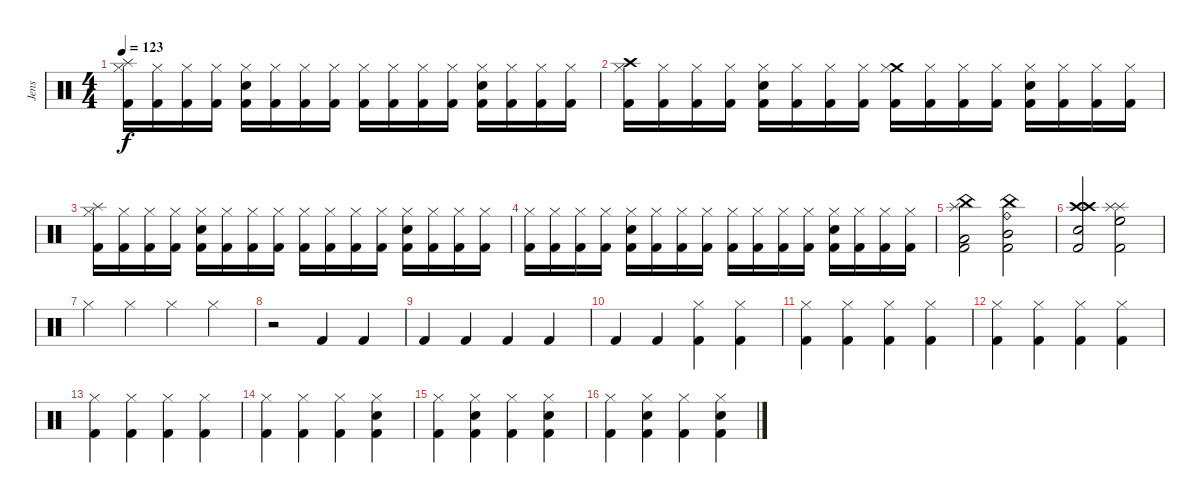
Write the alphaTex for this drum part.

\track ("Jens" "Jens") {instrument percussion}
\staff {score}
\articulation defaults
\ts (4 4)
\tempo 123
\clef neutral
\ks c
("Splash (hit)" "Hi-Hat (closed)" "Kick (hit) 2").16{dy f} ("Hi-Hat (closed)" "Kick (hit) 2").16 ("Hi-Hat (closed)" "Kick (hit) 2").16 ("Hi-Hat (closed)" "Kick (hit) 2").16 ("Hi-Hat (closed)" "Snare (hit) 2" "Kick (hit) 2").16 ("Hi-Hat (closed)" "Kick (hit) 2").16 ("Hi-Hat (closed)" "Kick (hit) 2").16 ("Hi-Hat (closed)" "Kick (hit) 2").16 ("Hi-Hat (closed)" "Kick (hit) 2").16 ("Hi-Hat (closed)" "Kick (hit) 2").16 ("Hi-Hat (closed)" "Kick (hit) 2").16 ("Hi-Hat (closed)" "Kick (hit) 2").16 ("Hi-Hat (closed)" "Snare (hit) 2" "Kick (hit) 2").16 ("Hi-Hat (closed)" "Kick (hit) 2").16 ("Hi-Hat (closed)" "Kick (hit) 2").16 ("Hi-Hat (closed)" "Kick (hit) 2").16 |
("Crash high (hit)" "Hi-Hat (closed)" "Kick (hit) 2").16 ("Hi-Hat (closed)" "Kick (hit) 2").16 ("Hi-Hat (closed)" "Kick (hit) 2").16 ("Hi-Hat (closed)" "Kick (hit) 2").16 ("Hi-Hat (closed)" "Snare (hit) 2" "Kick (hit) 2").16 ("Hi-Hat (closed)" "Kick (hit) 2").16 ("Hi-Hat (closed)" "Kick (hit) 2").16 ("Hi-Hat (closed)" "Kick (hit) 2").16 ("Crash medium (hit)" "Hi-Hat (closed)" "Kick (hit) 2").16 ("Hi-Hat (closed)" "Kick (hit) 2").16 ("Hi-Hat (closed)" "Kick (hit) 2").16 ("Hi-Hat (closed)" "Kick (hit) 2").16 ("Hi-Hat (closed)" "Snare (hit) 2" "Kick (hit) 2").16 ("Hi-Hat (closed)" "Kick (hit) 2").16 ("Hi-Hat (closed)" "Kick (hit) 2").16 ("Hi-Hat (closed)" "Kick (hit) 2").16 |
("Splash (hit)" "Hi-Hat (closed)" "Kick (hit) 2").16 ("Hi-Hat (closed)" "Kick (hit) 2").16 ("Hi-Hat (closed)" "Kick (hit) 2").16 ("Hi-Hat (closed)" "Kick (hit) 2").16 ("Hi-Hat (closed)" "Snare (hit) 2" "Kick (hit) 2").16 ("Hi-Hat (closed)" "Kick (hit) 2").16 ("Hi-Hat (closed)" "Kick (hit) 2").16 ("Hi-Hat (closed)" "Kick (hit) 2").16 ("Hi-Hat (closed)" "Kick (hit) 2").16 ("Hi-Hat (closed)" "Kick (hit) 2").16 ("Hi-Hat (closed)" "Kick (hit) 2").16 ("Hi-Hat (closed)" "Kick (hit) 2").16 ("Hi-Hat (closed)" "Snare (hit) 2" "Kick (hit) 2").16 ("Hi-Hat (closed)" "Kick (hit) 2").16 ("Hi-Hat (closed)" "Kick (hit) 2").16 ("Hi-Hat (closed)" "Kick (hit) 2").16 |
("Hi-Hat (closed)" "Kick (hit) 2").16 ("Hi-Hat (closed)" "Kick (hit) 2").16 ("Hi-Hat (closed)" "Kick (hit) 2").16 ("Hi-Hat (closed)" "Kick (hit) 2").16 ("Hi-Hat (closed)" "Snare (hit) 2" "Kick (hit) 2").16 ("Hi-Hat (closed)" "Kick (hit) 2").16 ("Hi-Hat (closed)" "Kick (hit) 2").16 ("Hi-Hat (closed)" "Kick (hit) 2").16 ("Hi-Hat (closed)" "Kick (hit) 2").16 ("Hi-Hat (closed)" "Kick (hit) 2").16 ("Hi-Hat (closed)" "Kick (hit) 2").16 ("Hi-Hat (closed)" "Kick (hit) 2").16 ("Hi-Hat (closed)" "Snare (hit) 2" "Kick (hit) 2").16 ("Hi-Hat (closed)" "Kick (hit) 2").16 ("Hi-Hat (closed)" "Kick (hit) 2").16 ("Hi-Hat (closed)" "Kick (hit) 2").16 |
("Splash (hit)" "China (hit)" "Low Tom (hit)" "Kick (hit) 2").2 ("China (hit)" "Mid Tom (hit)" "Ride (bell)" "Kick (hit) 2").2 |
("Crash high (hit)" "Crash high (hit)" "Electric Snare (hit)" "Kick (hit) 2").2 ("Splash (hit)" "Splash (hit)" "High Floor Tom (hit)" "Kick (hit) 2").2 |
"Hi-Hat (closed)".4 "Hi-Hat (closed)".4 "Hi-Hat (closed)".4 "Hi-Hat (closed)".4 |
r.2 "Kick (hit) 2".4 "Kick (hit) 2".4 |
"Kick (hit) 2".4 "Kick (hit) 2".4 "Kick (hit) 2".4 "Kick (hit) 2".4 |
"Kick (hit) 2".4 "Kick (hit) 2".4 ("Hi-Hat (closed)" "Kick (hit) 2").4 ("Hi-Hat (closed)" "Kick (hit) 2").4 |
("Hi-Hat (closed)" "Kick (hit) 2").4 ("Hi-Hat (closed)" "Kick (hit) 2").4 ("Hi-Hat (closed)" "Kick (hit) 2").4 ("Hi-Hat (closed)" "Kick (hit) 2").4 |
("Hi-Hat (closed)" "Kick (hit) 2").4 ("Hi-Hat (closed)" "Kick (hit) 2").4 ("Hi-Hat (closed)" "Kick (hit) 2").4 ("Hi-Hat (closed)" "Kick (hit) 2").4 |
("Hi-Hat (closed)" "Kick (hit) 2").4 ("Hi-Hat (closed)" "Kick (hit) 2").4 ("Hi-Hat (closed)" "Kick (hit) 2").4 ("Hi-Hat (closed)" "Kick (hit) 2").4 |
("Hi-Hat (closed)" "Kick (hit) 2").4 ("Hi-Hat (closed)" "Kick (hit) 2").4 ("Hi-Hat (closed)" "Kick (hit) 2").4 ("Hi-Hat (closed)" "Electric Snare (hit)" "Kick (hit) 2").4 |
("Hi-Hat (closed)" "Kick (hit) 2").4 ("Hi-Hat (closed)" "Electric Snare (hit)" "Kick (hit) 2").4 ("Hi-Hat (closed)" "Kick (hit) 2").4 ("Hi-Hat (closed)" "Electric Snare (hit)" "Kick (hit) 2").4 |
("Hi-Hat (closed)" "Kick (hit) 2").4 ("Hi-Hat (closed)" "Electric Snare (hit)" "Kick (hit) 2").4 ("Hi-Hat (closed)" "Kick (hit) 2").4 ("Hi-Hat (closed)" "Electric Snare (hit)" "Kick (hit) 2").4
